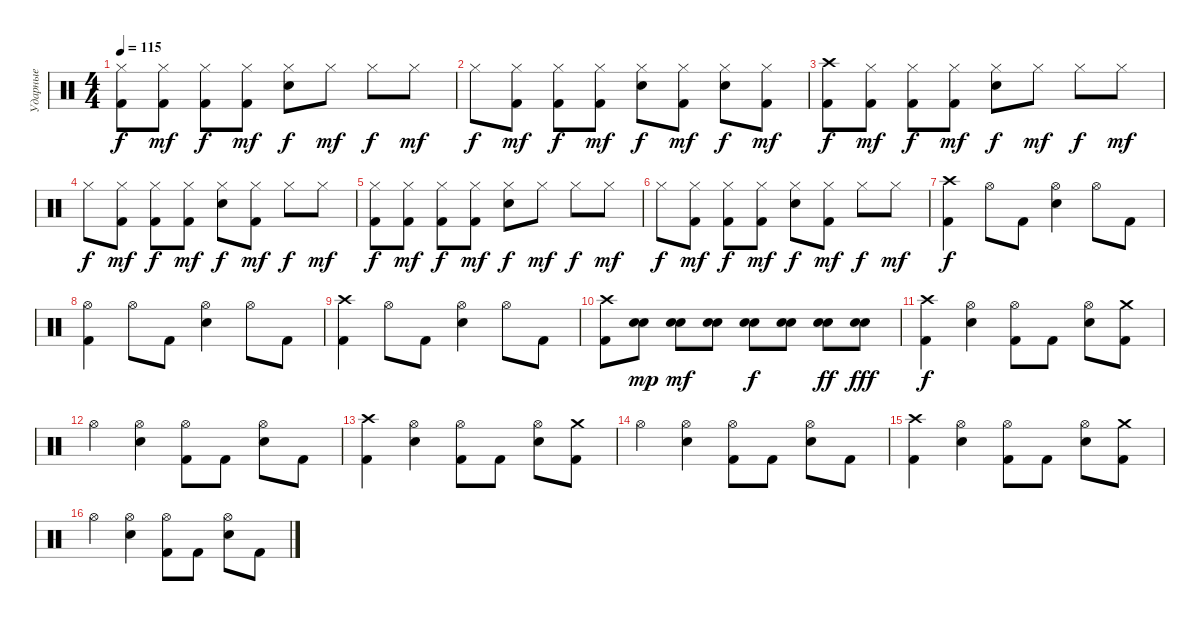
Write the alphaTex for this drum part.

\track ("Ударные" "Ударные") {instrument percussion}
\staff {score}
\articulation defaults
\ts (4 4)
\tempo 115
\clef neutral
\ks c
("Kick (hit) 2" "Hi-Hat (closed)").8{dy f} ("Kick (hit) 2" "Hi-Hat (closed)").8{dy mf} ("Kick (hit) 2" "Hi-Hat (closed)").8{dy f} ("Kick (hit) 2" "Hi-Hat (closed)").8{dy mf} ("Snare (hit) 2" "Hi-Hat (closed)").8{dy f} "Hi-Hat (closed)".8{dy mf} "Hi-Hat (closed)".8{dy f} "Hi-Hat (closed)".8{dy mf} |
"Hi-Hat (closed)".8{dy f} ("Kick (hit) 2" "Hi-Hat (closed)").8{dy mf} ("Kick (hit) 2" "Hi-Hat (closed)").8{dy f} ("Kick (hit) 2" "Hi-Hat (closed)").8{dy mf} ("Snare (hit) 2" "Hi-Hat (closed)").8{dy f} ("Kick (hit) 2" "Hi-Hat (closed)").8{dy mf} ("Snare (hit) 2" "Hi-Hat (closed)").8{dy f} ("Kick (hit) 2" "Hi-Hat (closed)").8{dy mf} |
("Kick (hit) 2" "Crash high (hit)").8{dy f} ("Kick (hit) 2" "Hi-Hat (closed)").8{dy mf} ("Kick (hit) 2" "Hi-Hat (closed)").8{dy f} ("Kick (hit) 2" "Hi-Hat (closed)").8{dy mf} ("Snare (hit) 2" "Hi-Hat (closed)").8{dy f} "Hi-Hat (closed)".8{dy mf} "Hi-Hat (closed)".8{dy f} "Hi-Hat (closed)".8{dy mf} |
"Hi-Hat (closed)".8{dy f} ("Kick (hit) 2" "Hi-Hat (closed)").8{dy mf} ("Kick (hit) 2" "Hi-Hat (closed)").8{dy f} ("Kick (hit) 2" "Hi-Hat (closed)").8{dy mf} ("Snare (hit) 2" "Hi-Hat (closed)").8{dy f} ("Kick (hit) 2" "Hi-Hat (closed)").8{dy mf} "Hi-Hat (closed)".8{dy f} "Hi-Hat (closed)".8{dy mf} |
("Kick (hit) 2" "Hi-Hat (closed)").8{dy f} ("Kick (hit) 2" "Hi-Hat (closed)").8{dy mf} ("Kick (hit) 2" "Hi-Hat (closed)").8{dy f} ("Kick (hit) 2" "Hi-Hat (closed)").8{dy mf} ("Snare (hit) 2" "Hi-Hat (closed)").8{dy f} "Hi-Hat (closed)".8{dy mf} "Hi-Hat (closed)".8{dy f} "Hi-Hat (closed)".8{dy mf} |
"Hi-Hat (closed)".8{dy f} ("Kick (hit) 2" "Hi-Hat (closed)").8{dy mf} ("Kick (hit) 2" "Hi-Hat (closed)").8{dy f} ("Kick (hit) 2" "Hi-Hat (closed)").8{dy mf} ("Snare (hit) 2" "Hi-Hat (closed)").8{dy f} ("Kick (hit) 2" "Hi-Hat (closed)").8{dy mf} "Hi-Hat (closed)".8{dy f} "Hi-Hat (closed)".8{dy mf} |
("Kick (hit) 2" "Crash high (hit)").4{dy f} "Hi-Hat (open)".8 "Kick (hit) 2".8 ("Snare (hit) 2" "Hi-Hat (open)").4 "Hi-Hat (open)".8 "Kick (hit) 2".8 |
("Kick (hit) 2" "Hi-Hat (open)").4 "Hi-Hat (open)".8 "Kick (hit) 2".8 ("Snare (hit) 2" "Hi-Hat (open)").4 "Hi-Hat (open)".8 "Kick (hit) 2".8 |
("Kick (hit) 2" "Crash high (hit)").4 "Hi-Hat (open)".8 "Kick (hit) 2".8 ("Snare (hit) 2" "Hi-Hat (open)").4 "Hi-Hat (open)".8 "Kick (hit) 2".8 |
("Kick (hit) 2" "Crash high (hit)").8 ("Snare (hit) 2" "Snare (hit) 2").8{dy mp} ("Snare (hit) 2" "Snare (hit) 2").8{dy mf} ("Snare (hit) 2" "Snare (hit) 2").8 ("Snare (hit) 2" "Snare (hit) 2").8{dy f} ("Snare (hit) 2" "Snare (hit) 2").8 ("Snare (hit) 2" "Snare (hit) 2").8{dy ff} ("Snare (hit) 2" "Snare (hit) 2").8{dy fff} |
("Kick (hit) 2" "Crash high (hit)").4{dy f} ("Snare (hit) 2" "Hi-Hat (open)").4 ("Kick (hit) 2" "Hi-Hat (open)").8 "Kick (hit) 2".8 ("Snare (hit) 2" "Hi-Hat (open)").8 ("Kick (hit) 2" "Crash medium (hit)").8 |
"Hi-Hat (open)".4 ("Snare (hit) 2" "Hi-Hat (open)").4 ("Kick (hit) 2" "Hi-Hat (open)").8 "Kick (hit) 2".8 ("Snare (hit) 2" "Hi-Hat (open)").8 "Kick (hit) 2".8 |
("Kick (hit) 2" "Crash high (hit)").4 ("Snare (hit) 2" "Hi-Hat (open)").4 ("Kick (hit) 2" "Hi-Hat (open)").8 "Kick (hit) 2".8 ("Snare (hit) 2" "Hi-Hat (open)").8 ("Kick (hit) 2" "Crash medium (hit)").8 |
"Hi-Hat (open)".4 ("Snare (hit) 2" "Hi-Hat (open)").4 ("Kick (hit) 2" "Hi-Hat (open)").8 "Kick (hit) 2".8 ("Snare (hit) 2" "Hi-Hat (open)").8 "Kick (hit) 2".8 |
("Kick (hit) 2" "Crash high (hit)").4 ("Snare (hit) 2" "Hi-Hat (open)").4 ("Kick (hit) 2" "Hi-Hat (open)").8 "Kick (hit) 2".8 ("Snare (hit) 2" "Hi-Hat (open)").8 ("Kick (hit) 2" "Crash medium (hit)").8 |
"Hi-Hat (open)".4 ("Snare (hit) 2" "Hi-Hat (open)").4 ("Kick (hit) 2" "Hi-Hat (open)").8 "Kick (hit) 2".8 ("Snare (hit) 2" "Hi-Hat (open)").8 "Kick (hit) 2".8
